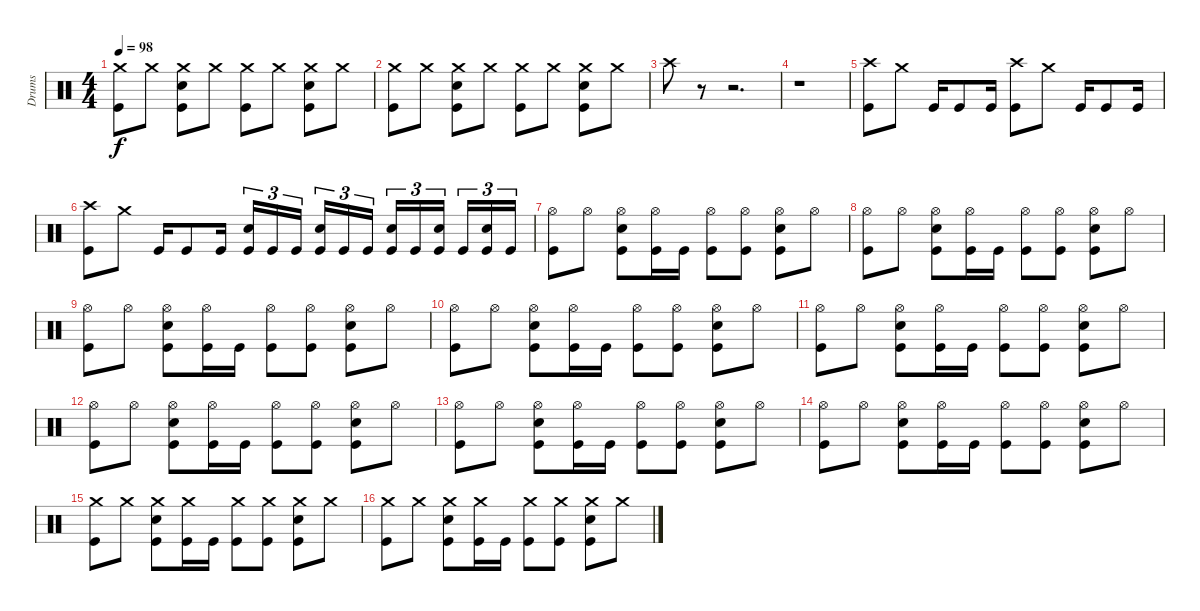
\track ("Drums" "Drums") {instrument percussion}
\staff {score}
\articulation defaults
\ts (4 4)
\tempo 98
\clef neutral
\ks c
("Crash medium (hit)" "Kick (hit)").8{dy f} "Crash medium (hit)".8 ("Crash medium (hit)" "Electric Snare (hit)" "Kick (hit)").8 "Crash medium (hit)".8 ("Crash medium (hit)" "Kick (hit)").8 "Crash medium (hit)".8 ("Crash medium (hit)" "Electric Snare (hit)" "Kick (hit)").8 "Crash medium (hit)".8 |
("Crash medium (hit)" "Kick (hit)").8 "Crash medium (hit)".8 ("Crash medium (hit)" "Electric Snare (hit)" "Kick (hit)").8 "Crash medium (hit)".8 ("Crash medium (hit)" "Kick (hit)").8 "Crash medium (hit)".8 ("Crash medium (hit)" "Electric Snare (hit)" "Kick (hit)").8 "Crash medium (hit)".8 |
"Crash high (hit)".8 r.8 r.2{d} |
r.1 |
("Crash high (hit)" "Kick (hit)").8 "Crash medium (hit)".8 "Kick (hit)".16 "Kick (hit)".8 "Kick (hit)".16 ("Crash high (hit)" "Kick (hit)").8 "Crash medium (hit)".8 "Kick (hit)".16 "Kick (hit)".8 "Kick (hit)".16 |
("Crash high (hit)" "Kick (hit)").8 "Crash medium (hit)".8 "Kick (hit)".16 "Kick (hit)".8 "Kick (hit)".16 ("Electric Snare (hit)" "Kick (hit)").16{tu (3 2)} "Kick (hit)".16{tu (3 2)} "Kick (hit)".16{tu (3 2)} ("Electric Snare (hit)" "Kick (hit)").16{tu (3 2)} "Kick (hit)".16{tu (3 2)} "Kick (hit)".16{tu (3 2)} ("Electric Snare (hit)" "Kick (hit)").16{tu (3 2)} "Kick (hit)".16{tu (3 2)} ("Electric Snare (hit)" "Kick (hit)").16{tu (3 2)} "Kick (hit)".16{tu (3 2)} ("Electric Snare (hit)" "Kick (hit)").16{tu (3 2)} "Kick (hit)".16{tu (3 2)} |
("Hi-Hat (open)" "Kick (hit)").8 "Hi-Hat (open)".8 ("Hi-Hat (open)" "Electric Snare (hit)" "Kick (hit)").8 ("Hi-Hat (open)" "Kick (hit)").16 "Kick (hit)".16 ("Hi-Hat (open)" "Kick (hit)").8 ("Hi-Hat (open)" "Kick (hit)").8 ("Hi-Hat (open)" "Electric Snare (hit)" "Kick (hit)").8 "Hi-Hat (open)".8 |
("Hi-Hat (open)" "Kick (hit)").8 "Hi-Hat (open)".8 ("Hi-Hat (open)" "Electric Snare (hit)" "Kick (hit)").8 ("Hi-Hat (open)" "Kick (hit)").16 "Kick (hit)".16 ("Hi-Hat (open)" "Kick (hit)").8 ("Hi-Hat (open)" "Kick (hit)").8 ("Hi-Hat (open)" "Electric Snare (hit)" "Kick (hit)").8 "Hi-Hat (open)".8 |
("Hi-Hat (open)" "Kick (hit)").8 "Hi-Hat (open)".8 ("Hi-Hat (open)" "Electric Snare (hit)" "Kick (hit)").8 ("Hi-Hat (open)" "Kick (hit)").16 "Kick (hit)".16 ("Hi-Hat (open)" "Kick (hit)").8 ("Hi-Hat (open)" "Kick (hit)").8 ("Hi-Hat (open)" "Electric Snare (hit)" "Kick (hit)").8 "Hi-Hat (open)".8 |
("Hi-Hat (open)" "Kick (hit)").8 "Hi-Hat (open)".8 ("Hi-Hat (open)" "Electric Snare (hit)" "Kick (hit)").8 ("Hi-Hat (open)" "Kick (hit)").16 "Kick (hit)".16 ("Hi-Hat (open)" "Kick (hit)").8 ("Hi-Hat (open)" "Kick (hit)").8 ("Hi-Hat (open)" "Electric Snare (hit)" "Kick (hit)").8 "Hi-Hat (open)".8 |
("Hi-Hat (open)" "Kick (hit)").8 "Hi-Hat (open)".8 ("Hi-Hat (open)" "Electric Snare (hit)" "Kick (hit)").8 ("Hi-Hat (open)" "Kick (hit)").16 "Kick (hit)".16 ("Hi-Hat (open)" "Kick (hit)").8 ("Hi-Hat (open)" "Kick (hit)").8 ("Hi-Hat (open)" "Electric Snare (hit)" "Kick (hit)").8 "Hi-Hat (open)".8 |
("Hi-Hat (open)" "Kick (hit)").8 "Hi-Hat (open)".8 ("Hi-Hat (open)" "Electric Snare (hit)" "Kick (hit)").8 ("Hi-Hat (open)" "Kick (hit)").16 "Kick (hit)".16 ("Hi-Hat (open)" "Kick (hit)").8 ("Hi-Hat (open)" "Kick (hit)").8 ("Hi-Hat (open)" "Electric Snare (hit)" "Kick (hit)").8 "Hi-Hat (open)".8 |
("Hi-Hat (open)" "Kick (hit)").8 "Hi-Hat (open)".8 ("Hi-Hat (open)" "Electric Snare (hit)" "Kick (hit)").8 ("Hi-Hat (open)" "Kick (hit)").16 "Kick (hit)".16 ("Hi-Hat (open)" "Kick (hit)").8 ("Hi-Hat (open)" "Kick (hit)").8 ("Hi-Hat (open)" "Electric Snare (hit)" "Kick (hit)").8 "Hi-Hat (open)".8 |
("Hi-Hat (open)" "Kick (hit)").8 "Hi-Hat (open)".8 ("Hi-Hat (open)" "Electric Snare (hit)" "Kick (hit)").8 ("Hi-Hat (open)" "Kick (hit)").16 "Kick (hit)".16 ("Hi-Hat (open)" "Kick (hit)").8 ("Hi-Hat (open)" "Kick (hit)").8 ("Hi-Hat (open)" "Electric Snare (hit)" "Kick (hit)").8 "Hi-Hat (open)".8 |
("Crash medium (hit)" "Kick (hit)").8 "Crash medium (hit)".8 ("Crash medium (hit)" "Electric Snare (hit)" "Kick (hit)").8 ("Crash medium (hit)" "Kick (hit)").16 "Kick (hit)".16 ("Crash medium (hit)" "Kick (hit)").8 ("Crash medium (hit)" "Kick (hit)").8 ("Crash medium (hit)" "Electric Snare (hit)" "Kick (hit)").8 "Crash medium (hit)".8 |
("Crash medium (hit)" "Kick (hit)").8 "Crash medium (hit)".8 ("Crash medium (hit)" "Electric Snare (hit)" "Kick (hit)").8 ("Crash medium (hit)" "Kick (hit)").16 "Kick (hit)".16 ("Crash medium (hit)" "Kick (hit)").8 ("Crash medium (hit)" "Kick (hit)").8 ("Crash medium (hit)" "Electric Snare (hit)" "Kick (hit)").8 "Crash medium (hit)".8
